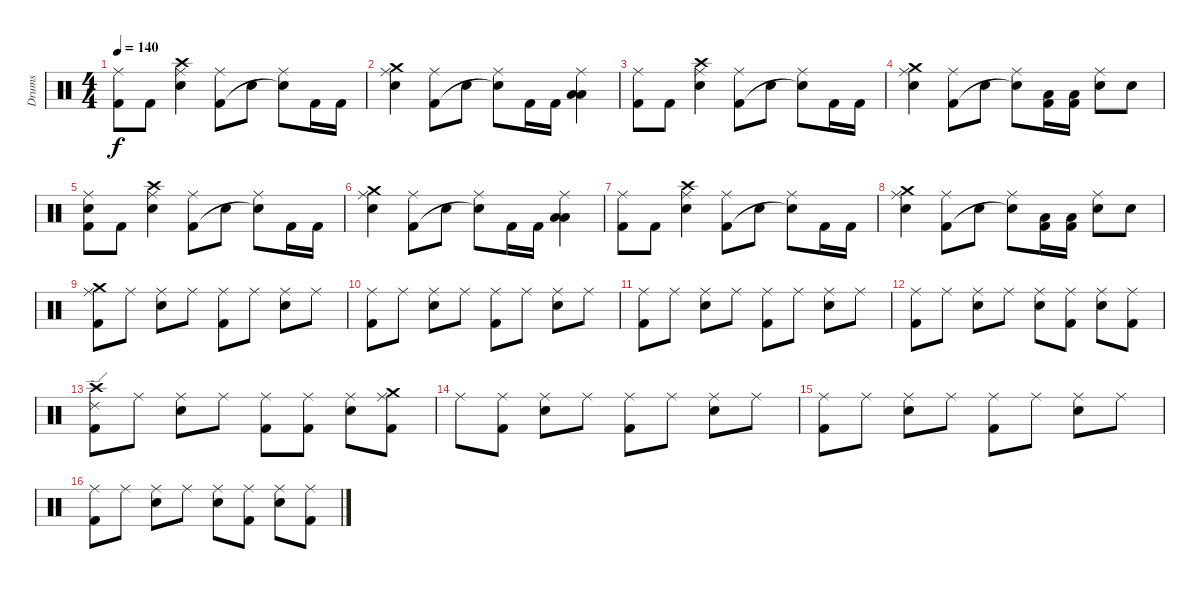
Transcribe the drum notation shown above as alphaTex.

\track ("Drums" "Drums") {instrument percussion}
\staff {score}
\articulation defaults
\ts (4 4)
\tempo 140
\clef neutral
\ks c
("Ride (middle)" "Kick (hit) 2").8{dy f} "Kick (hit) 2".8 ("Ride (middle)" "Electric Snare (hit)" "Crash high (hit)").4 ("Ride (middle)" "Kick (hit) 2").8 "Electric Snare (hit)".8 ("Ride (middle)" "Electric Snare (hit)"{t}).8 "Kick (hit) 2".16 "Kick (hit) 2".16 |
("Ride (middle)" "Electric Snare (hit)" "Crash medium (hit)").4 ("Ride (middle)" "Kick (hit) 2").8 "Electric Snare (hit)".8 ("Ride (middle)" "Electric Snare (hit)"{t}).8 "Kick (hit) 2".16 "Kick (hit) 2".16 ("Ride (middle)" "Low Tom (hit)" "Low Tom (hit)").4 |
("Ride (middle)" "Kick (hit) 2").8 "Kick (hit) 2".8 ("Ride (middle)" "Electric Snare (hit)" "Crash high (hit)").4 ("Ride (middle)" "Kick (hit) 2").8 "Electric Snare (hit)".8 ("Ride (middle)" "Electric Snare (hit)"{t}).8 "Kick (hit) 2".16 "Kick (hit) 2".16 |
("Ride (middle)" "Electric Snare (hit)" "Crash medium (hit)").4 ("Ride (middle)" "Kick (hit) 2").8 "Electric Snare (hit)".8 ("Ride (middle)" "Electric Snare (hit)"{t}).8 ("Low Floor Tom (hit)" "Kick (hit) 2").16 ("Low Floor Tom (hit)" "Kick (hit) 2").16 ("Ride (middle)" "Electric Snare (hit)").8 "Electric Snare (hit)".8 |
("Ride (middle)" "Kick (hit) 2" "Electric Snare (hit)").8 "Kick (hit) 2".8 ("Ride (middle)" "Electric Snare (hit)" "Crash high (hit)").4 ("Ride (middle)" "Kick (hit) 2").8 "Electric Snare (hit)".8 ("Ride (middle)" "Electric Snare (hit)"{t}).8 "Kick (hit) 2".16 "Kick (hit) 2".16 |
("Ride (middle)" "Electric Snare (hit)" "Crash medium (hit)").4 ("Ride (middle)" "Kick (hit) 2").8 "Electric Snare (hit)".8 ("Ride (middle)" "Electric Snare (hit)"{t}).8 "Kick (hit) 2".16 "Kick (hit) 2".16 ("Ride (middle)" "Low Tom (hit)" "Low Tom (hit)").4 |
("Ride (middle)" "Kick (hit) 2").8 "Kick (hit) 2".8 ("Ride (middle)" "Electric Snare (hit)" "Crash high (hit)").4 ("Ride (middle)" "Kick (hit) 2").8 "Electric Snare (hit)".8 ("Ride (middle)" "Electric Snare (hit)"{t}).8 "Kick (hit) 2".16 "Kick (hit) 2".16 |
("Ride (middle)" "Electric Snare (hit)" "Crash medium (hit)").4 ("Ride (middle)" "Kick (hit) 2").8 "Electric Snare (hit)".8 ("Ride (middle)" "Electric Snare (hit)"{t}).8 ("Low Floor Tom (hit)" "Kick (hit) 2").16 ("Low Floor Tom (hit)" "Kick (hit) 2").16 ("Ride (middle)" "Electric Snare (hit)").8 "Electric Snare (hit)".8 |
("Ride (middle)" "Kick (hit) 2" "Crash medium (hit)").8 "Ride (middle)".8 ("Ride (middle)" "Electric Snare (hit)").8 "Ride (middle)".8 ("Ride (middle)" "Kick (hit) 2").8 "Ride (middle)".8 ("Ride (middle)" "Electric Snare (hit)").8 "Ride (middle)".8 |
("Ride (middle)" "Kick (hit) 2").8 "Ride (middle)".8 ("Ride (middle)" "Electric Snare (hit)").8 "Ride (middle)".8 ("Ride (middle)" "Kick (hit) 2").8 "Ride (middle)".8 ("Ride (middle)" "Electric Snare (hit)").8 "Ride (middle)".8 |
("Ride (middle)" "Kick (hit) 2").8 "Ride (middle)".8 ("Ride (middle)" "Electric Snare (hit)").8 "Ride (middle)".8 ("Ride (middle)" "Kick (hit) 2").8 "Ride (middle)".8 ("Ride (middle)" "Electric Snare (hit)").8 "Ride (middle)".8 |
("Ride (middle)" "Kick (hit) 2").8 "Ride (middle)".8 ("Ride (middle)" "Electric Snare (hit)").8 "Ride (middle)".8 ("Ride (middle)" "Electric Snare (hit)").8 ("Ride (middle)" "Kick (hit) 2").8 ("Ride (middle)" "Electric Snare (hit)").8 ("Ride (middle)" "Kick (hit) 2").8 |
("Ride (edge) 2" "Kick (hit) 2" "Crash high (hit)").8 "Ride (middle)".8 ("Ride (middle)" "Electric Snare (hit)").8 "Ride (middle)".8 ("Ride (middle)" "Kick (hit) 2").8 ("Ride (middle)" "Kick (hit) 2").8 ("Ride (middle)" "Electric Snare (hit)").8 ("Ride (middle)" "Kick (hit) 2" "Crash medium (hit)").8 |
"Ride (middle)".8 ("Ride (middle)" "Kick (hit) 2").8 ("Ride (middle)" "Electric Snare (hit)").8 "Ride (middle)".8 ("Ride (middle)" "Kick (hit) 2").8 "Ride (middle)".8 ("Ride (middle)" "Electric Snare (hit)").8 "Ride (middle)".8 |
("Ride (middle)" "Kick (hit) 2").8 "Ride (middle)".8 ("Ride (middle)" "Electric Snare (hit)").8 "Ride (middle)".8 ("Ride (middle)" "Kick (hit) 2").8 "Ride (middle)".8 ("Ride (middle)" "Electric Snare (hit)").8 "Ride (middle)".8 |
("Ride (middle)" "Kick (hit) 2").8 "Ride (middle)".8 ("Ride (middle)" "Electric Snare (hit)").8 "Ride (middle)".8 ("Ride (middle)" "Electric Snare (hit)").8 ("Ride (middle)" "Kick (hit) 2").8 ("Ride (middle)" "Electric Snare (hit)").8 ("Ride (middle)" "Kick (hit) 2").8
